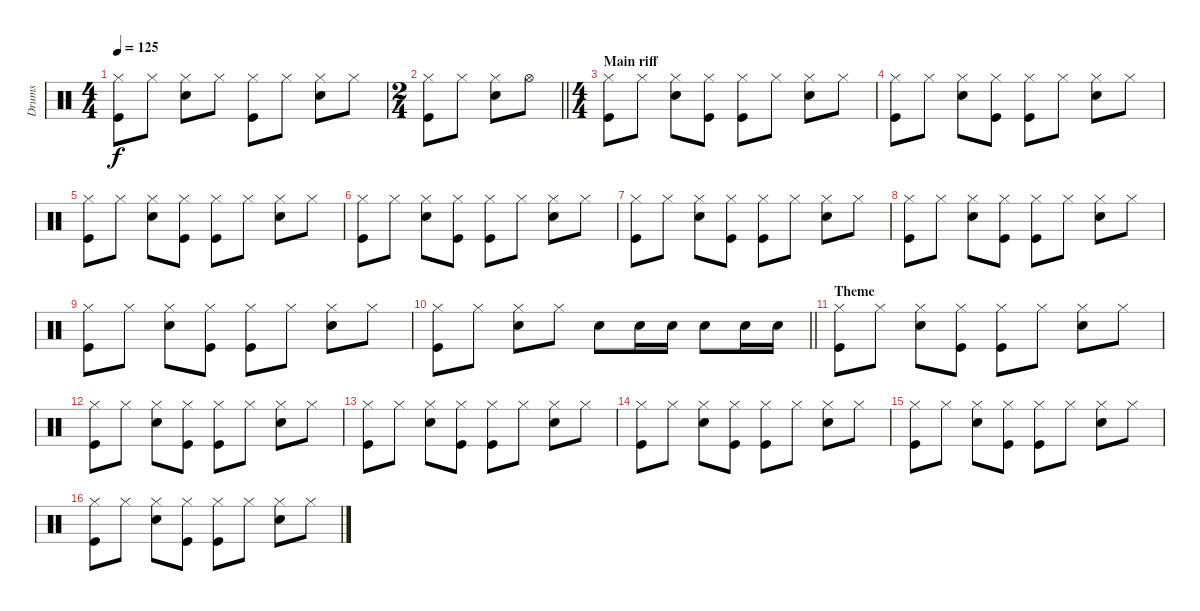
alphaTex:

\track ("Drums" "Drums") {instrument percussion}
\staff {score}
\articulation defaults
\ts (4 4)
\tempo 125
\clef neutral
\ks c
("Hi-Hat (closed)" "Kick (hit)").8{dy f} "Hi-Hat (closed)".8 ("Hi-Hat (closed)" "Electric Snare (hit)").8 "Hi-Hat (closed)".8 ("Hi-Hat (closed)" "Kick (hit)").8 "Hi-Hat (closed)".8 ("Hi-Hat (closed)" "Electric Snare (hit)").8 "Hi-Hat (closed)".8 |
\ts (2 4)
\barLineRight lightlight
("Hi-Hat (closed)" "Kick (hit)").8 "Hi-Hat (closed)".8 ("Hi-Hat (closed)" "Electric Snare (hit)").8 "Hi-Hat (open)".8 |
\ts (4 4)
\section ("" "Main riff")
("Hi-Hat (closed)" "Kick (hit)").8 "Hi-Hat (closed)".8 ("Hi-Hat (closed)" "Electric Snare (hit)").8 ("Hi-Hat (closed)" "Kick (hit)").8 ("Hi-Hat (closed)" "Kick (hit)").8 "Hi-Hat (closed)".8 ("Hi-Hat (closed)" "Electric Snare (hit)").8 "Hi-Hat (closed)".8 |
("Hi-Hat (closed)" "Kick (hit)").8 "Hi-Hat (closed)".8 ("Hi-Hat (closed)" "Electric Snare (hit)").8 ("Hi-Hat (closed)" "Kick (hit)").8 ("Hi-Hat (closed)" "Kick (hit)").8 "Hi-Hat (closed)".8 ("Hi-Hat (closed)" "Electric Snare (hit)").8 "Hi-Hat (closed)".8 |
("Hi-Hat (closed)" "Kick (hit)").8 "Hi-Hat (closed)".8 ("Hi-Hat (closed)" "Electric Snare (hit)").8 ("Hi-Hat (closed)" "Kick (hit)").8 ("Hi-Hat (closed)" "Kick (hit)").8 "Hi-Hat (closed)".8 ("Hi-Hat (closed)" "Electric Snare (hit)").8 "Hi-Hat (closed)".8 |
("Hi-Hat (closed)" "Kick (hit)").8 "Hi-Hat (closed)".8 ("Hi-Hat (closed)" "Electric Snare (hit)").8 ("Hi-Hat (closed)" "Kick (hit)").8 ("Hi-Hat (closed)" "Kick (hit)").8 "Hi-Hat (closed)".8 ("Hi-Hat (closed)" "Electric Snare (hit)").8 "Hi-Hat (closed)".8 |
("Hi-Hat (closed)" "Kick (hit)").8 "Hi-Hat (closed)".8 ("Hi-Hat (closed)" "Electric Snare (hit)").8 ("Hi-Hat (closed)" "Kick (hit)").8 ("Hi-Hat (closed)" "Kick (hit)").8 "Hi-Hat (closed)".8 ("Hi-Hat (closed)" "Electric Snare (hit)").8 "Hi-Hat (closed)".8 |
("Hi-Hat (closed)" "Kick (hit)").8 "Hi-Hat (closed)".8 ("Hi-Hat (closed)" "Electric Snare (hit)").8 ("Hi-Hat (closed)" "Kick (hit)").8 ("Hi-Hat (closed)" "Kick (hit)").8 "Hi-Hat (closed)".8 ("Hi-Hat (closed)" "Electric Snare (hit)").8 "Hi-Hat (closed)".8 |
("Hi-Hat (closed)" "Kick (hit)").8 "Hi-Hat (closed)".8 ("Hi-Hat (closed)" "Electric Snare (hit)").8 ("Hi-Hat (closed)" "Kick (hit)").8 ("Hi-Hat (closed)" "Kick (hit)").8 "Hi-Hat (closed)".8 ("Hi-Hat (closed)" "Electric Snare (hit)").8 "Hi-Hat (closed)".8 |
\barLineRight lightlight
("Hi-Hat (closed)" "Kick (hit)").8 "Hi-Hat (closed)".8 ("Hi-Hat (closed)" "Electric Snare (hit)").8 "Hi-Hat (closed)".8 "Electric Snare (hit)".8 "Electric Snare (hit)".16 "Electric Snare (hit)".16 "Electric Snare (hit)".8 "Electric Snare (hit)".16 "Electric Snare (hit)".16 |
\section ("" "Theme")
("Hi-Hat (closed)" "Kick (hit)").8 "Hi-Hat (closed)".8 ("Hi-Hat (closed)" "Electric Snare (hit)").8 ("Hi-Hat (closed)" "Kick (hit)").8 ("Hi-Hat (closed)" "Kick (hit)").8 "Hi-Hat (closed)".8 ("Hi-Hat (closed)" "Electric Snare (hit)").8 "Hi-Hat (closed)".8 |
("Hi-Hat (closed)" "Kick (hit)").8 "Hi-Hat (closed)".8 ("Hi-Hat (closed)" "Electric Snare (hit)").8 ("Hi-Hat (closed)" "Kick (hit)").8 ("Hi-Hat (closed)" "Kick (hit)").8 "Hi-Hat (closed)".8 ("Hi-Hat (closed)" "Electric Snare (hit)").8 "Hi-Hat (closed)".8 |
("Hi-Hat (closed)" "Kick (hit)").8 "Hi-Hat (closed)".8 ("Hi-Hat (closed)" "Electric Snare (hit)").8 ("Hi-Hat (closed)" "Kick (hit)").8 ("Hi-Hat (closed)" "Kick (hit)").8 "Hi-Hat (closed)".8 ("Hi-Hat (closed)" "Electric Snare (hit)").8 "Hi-Hat (closed)".8 |
("Hi-Hat (closed)" "Kick (hit)").8 "Hi-Hat (closed)".8 ("Hi-Hat (closed)" "Electric Snare (hit)").8 ("Hi-Hat (closed)" "Kick (hit)").8 ("Hi-Hat (closed)" "Kick (hit)").8 "Hi-Hat (closed)".8 ("Hi-Hat (closed)" "Electric Snare (hit)").8 "Hi-Hat (closed)".8 |
("Hi-Hat (closed)" "Kick (hit)").8 "Hi-Hat (closed)".8 ("Hi-Hat (closed)" "Electric Snare (hit)").8 ("Hi-Hat (closed)" "Kick (hit)").8 ("Hi-Hat (closed)" "Kick (hit)").8 "Hi-Hat (closed)".8 ("Hi-Hat (closed)" "Electric Snare (hit)").8 "Hi-Hat (closed)".8 |
("Hi-Hat (closed)" "Kick (hit)").8 "Hi-Hat (closed)".8 ("Hi-Hat (closed)" "Electric Snare (hit)").8 ("Hi-Hat (closed)" "Kick (hit)").8 ("Hi-Hat (closed)" "Kick (hit)").8 "Hi-Hat (closed)".8 ("Hi-Hat (closed)" "Electric Snare (hit)").8 "Hi-Hat (closed)".8
